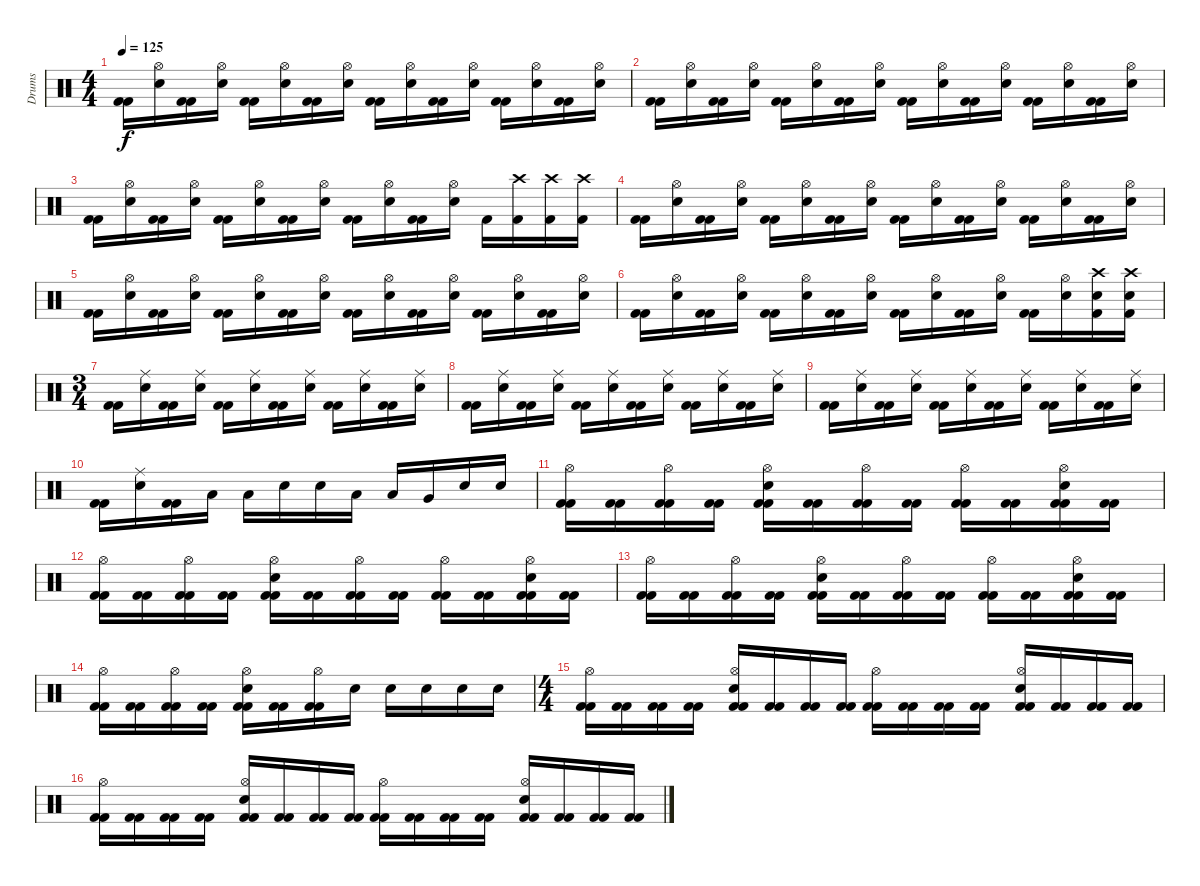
\track ("Drums" "Drums") {instrument percussion}
\staff {score}
\articulation defaults
\ts (4 4)
\tempo 125
\clef neutral
\ks c
("Kick (hit) 2" "Kick (hit) 2").16{dy f} ("Hi-Hat (open)" "Snare (hit) 2").16 ("Kick (hit) 2" "Kick (hit) 2").16 ("Hi-Hat (open)" "Snare (hit) 2").16 ("Kick (hit) 2" "Kick (hit) 2").16 ("Hi-Hat (open)" "Snare (hit) 2").16 ("Kick (hit) 2" "Kick (hit) 2").16 ("Hi-Hat (open)" "Snare (hit) 2").16 ("Kick (hit) 2" "Kick (hit) 2").16 ("Hi-Hat (open)" "Snare (hit) 2").16 ("Kick (hit) 2" "Kick (hit) 2").16 ("Hi-Hat (open)" "Snare (hit) 2").16 ("Kick (hit) 2" "Kick (hit) 2").16 ("Hi-Hat (open)" "Snare (hit) 2").16 ("Kick (hit) 2" "Kick (hit) 2").16 ("Hi-Hat (open)" "Snare (hit) 2").16 |
("Kick (hit) 2" "Kick (hit) 2").16 ("Hi-Hat (open)" "Snare (hit) 2").16 ("Kick (hit) 2" "Kick (hit) 2").16 ("Hi-Hat (open)" "Snare (hit) 2").16 ("Kick (hit) 2" "Kick (hit) 2").16 ("Hi-Hat (open)" "Snare (hit) 2").16 ("Kick (hit) 2" "Kick (hit) 2").16 ("Hi-Hat (open)" "Snare (hit) 2").16 ("Kick (hit) 2" "Kick (hit) 2").16 ("Hi-Hat (open)" "Snare (hit) 2").16 ("Kick (hit) 2" "Kick (hit) 2").16 ("Hi-Hat (open)" "Snare (hit) 2").16 ("Kick (hit) 2" "Kick (hit) 2").16 ("Hi-Hat (open)" "Snare (hit) 2").16 ("Kick (hit) 2" "Kick (hit) 2").16 ("Hi-Hat (open)" "Snare (hit) 2").16 |
("Kick (hit) 2" "Kick (hit) 2").16 ("Hi-Hat (open)" "Snare (hit) 2").16 ("Kick (hit) 2" "Kick (hit) 2").16 ("Hi-Hat (open)" "Snare (hit) 2").16 ("Kick (hit) 2" "Kick (hit) 2").16 ("Hi-Hat (open)" "Snare (hit) 2").16 ("Kick (hit) 2" "Kick (hit) 2").16 ("Hi-Hat (open)" "Snare (hit) 2").16 ("Kick (hit) 2" "Kick (hit) 2").16 ("Hi-Hat (open)" "Snare (hit) 2").16 ("Kick (hit) 2" "Kick (hit) 2").16 ("Hi-Hat (open)" "Snare (hit) 2").16 "Kick (hit) 2".16 ("Crash high (hit)" "Kick (hit) 2").16 ("Crash high (hit)" "Kick (hit) 2").16 ("Crash high (hit)" "Kick (hit) 2").16 |
("Kick (hit) 2" "Kick (hit) 2").16 ("Hi-Hat (open)" "Snare (hit) 2").16 ("Kick (hit) 2" "Kick (hit) 2").16 ("Hi-Hat (open)" "Snare (hit) 2").16 ("Kick (hit) 2" "Kick (hit) 2").16 ("Hi-Hat (open)" "Snare (hit) 2").16 ("Kick (hit) 2" "Kick (hit) 2").16 ("Hi-Hat (open)" "Snare (hit) 2").16 ("Kick (hit) 2" "Kick (hit) 2").16 ("Hi-Hat (open)" "Snare (hit) 2").16 ("Kick (hit) 2" "Kick (hit) 2").16 ("Hi-Hat (open)" "Snare (hit) 2").16 ("Kick (hit) 2" "Kick (hit) 2").16 ("Hi-Hat (open)" "Snare (hit) 2").16 ("Kick (hit) 2" "Kick (hit) 2").16 ("Hi-Hat (open)" "Snare (hit) 2").16 |
("Kick (hit) 2" "Kick (hit) 2").16 ("Hi-Hat (open)" "Snare (hit) 2").16 ("Kick (hit) 2" "Kick (hit) 2").16 ("Hi-Hat (open)" "Snare (hit) 2").16 ("Kick (hit) 2" "Kick (hit) 2").16 ("Hi-Hat (open)" "Snare (hit) 2").16 ("Kick (hit) 2" "Kick (hit) 2").16 ("Hi-Hat (open)" "Snare (hit) 2").16 ("Kick (hit) 2" "Kick (hit) 2").16 ("Hi-Hat (open)" "Snare (hit) 2").16 ("Kick (hit) 2" "Kick (hit) 2").16 ("Hi-Hat (open)" "Snare (hit) 2").16 ("Kick (hit) 2" "Kick (hit) 2").16 ("Hi-Hat (open)" "Snare (hit) 2").16 ("Kick (hit) 2" "Kick (hit) 2").16 ("Hi-Hat (open)" "Snare (hit) 2").16 |
("Kick (hit) 2" "Kick (hit) 2").16 ("Hi-Hat (open)" "Snare (hit) 2").16 ("Kick (hit) 2" "Kick (hit) 2").16 ("Hi-Hat (open)" "Snare (hit) 2").16 ("Kick (hit) 2" "Kick (hit) 2").16 ("Hi-Hat (open)" "Snare (hit) 2").16 ("Kick (hit) 2" "Kick (hit) 2").16 ("Hi-Hat (open)" "Snare (hit) 2").16 ("Kick (hit) 2" "Kick (hit) 2").16 ("Hi-Hat (open)" "Snare (hit) 2").16 ("Kick (hit) 2" "Kick (hit) 2").16 ("Hi-Hat (open)" "Snare (hit) 2").16 ("Kick (hit) 2" "Kick (hit) 2").16 ("Hi-Hat (open)" "Snare (hit) 2").16 ("Crash high (hit)" "Snare (hit) 2" "Kick (hit) 2").16 ("Crash high (hit)" "Snare (hit) 2" "Kick (hit) 2").16 |
\ts (3 4)
("Kick (hit) 2" "Kick (hit) 2").16 ("Ride (middle)" "Snare (hit) 2").16 ("Kick (hit) 2" "Kick (hit) 2").16 ("Ride (middle)" "Snare (hit) 2").16 ("Kick (hit) 2" "Kick (hit) 2").16 ("Ride (middle)" "Snare (hit) 2").16 ("Kick (hit) 2" "Kick (hit) 2").16 ("Ride (middle)" "Snare (hit) 2").16 ("Kick (hit) 2" "Kick (hit) 2").16 ("Ride (middle)" "Snare (hit) 2").16 ("Kick (hit) 2" "Kick (hit) 2").16 ("Ride (middle)" "Snare (hit) 2").16 |
("Kick (hit) 2" "Kick (hit) 2").16 ("Ride (middle)" "Snare (hit) 2").16 ("Kick (hit) 2" "Kick (hit) 2").16 ("Ride (middle)" "Snare (hit) 2").16 ("Kick (hit) 2" "Kick (hit) 2").16 ("Ride (middle)" "Snare (hit) 2").16 ("Kick (hit) 2" "Kick (hit) 2").16 ("Ride (middle)" "Snare (hit) 2").16 ("Kick (hit) 2" "Kick (hit) 2").16 ("Ride (middle)" "Snare (hit) 2").16 ("Kick (hit) 2" "Kick (hit) 2").16 ("Ride (middle)" "Snare (hit) 2").16 |
("Kick (hit) 2" "Kick (hit) 2").16 ("Ride (middle)" "Snare (hit) 2").16 ("Kick (hit) 2" "Kick (hit) 2").16 ("Ride (middle)" "Snare (hit) 2").16 ("Kick (hit) 2" "Kick (hit) 2").16 ("Ride (middle)" "Snare (hit) 2").16 ("Kick (hit) 2" "Kick (hit) 2").16 ("Ride (middle)" "Snare (hit) 2").16 ("Kick (hit) 2" "Kick (hit) 2").16 ("Ride (middle)" "Snare (hit) 2").16 ("Kick (hit) 2" "Kick (hit) 2").16 ("Ride (middle)" "Snare (hit) 2").16 |
("Kick (hit) 2" "Kick (hit) 2").16 ("Ride (middle)" "Snare (hit) 2").16 ("Kick (hit) 2" "Kick (hit) 2").16 "Low Tom (hit)".16 "Low Tom (hit)".16 "Snare (hit) 2".16 "Snare (hit) 2".16 "Low Tom (hit)".16 "Low Tom (hit)".16 "Very Low Tom (hit)".16 "Snare (hit) 2".16 "Snare (hit) 2".16 |
("Hi-Hat (open)" "Kick (hit) 2" "Kick (hit) 2").16 ("Kick (hit) 2" "Kick (hit) 2").16 ("Hi-Hat (open)" "Kick (hit) 2" "Kick (hit) 2").16 ("Kick (hit) 2" "Kick (hit) 2").16 ("Hi-Hat (open)" "Snare (hit) 2" "Kick (hit) 2" "Kick (hit) 2").16 ("Kick (hit) 2" "Kick (hit) 2").16 ("Hi-Hat (open)" "Kick (hit) 2" "Kick (hit) 2").16 ("Kick (hit) 2" "Kick (hit) 2").16 ("Hi-Hat (open)" "Kick (hit) 2" "Kick (hit) 2").16 ("Kick (hit) 2" "Kick (hit) 2").16 ("Hi-Hat (open)" "Snare (hit) 2" "Kick (hit) 2" "Kick (hit) 2").16 ("Kick (hit) 2" "Kick (hit) 2").16 |
("Hi-Hat (open)" "Kick (hit) 2" "Kick (hit) 2").16 ("Kick (hit) 2" "Kick (hit) 2").16 ("Hi-Hat (open)" "Kick (hit) 2" "Kick (hit) 2").16 ("Kick (hit) 2" "Kick (hit) 2").16 ("Hi-Hat (open)" "Snare (hit) 2" "Kick (hit) 2" "Kick (hit) 2").16 ("Kick (hit) 2" "Kick (hit) 2").16 ("Hi-Hat (open)" "Kick (hit) 2" "Kick (hit) 2").16 ("Kick (hit) 2" "Kick (hit) 2").16 ("Hi-Hat (open)" "Kick (hit) 2" "Kick (hit) 2").16 ("Kick (hit) 2" "Kick (hit) 2").16 ("Hi-Hat (open)" "Snare (hit) 2" "Kick (hit) 2" "Kick (hit) 2").16 ("Kick (hit) 2" "Kick (hit) 2").16 |
("Hi-Hat (open)" "Kick (hit) 2" "Kick (hit) 2").16 ("Kick (hit) 2" "Kick (hit) 2").16 ("Hi-Hat (open)" "Kick (hit) 2" "Kick (hit) 2").16 ("Kick (hit) 2" "Kick (hit) 2").16 ("Hi-Hat (open)" "Snare (hit) 2" "Kick (hit) 2" "Kick (hit) 2").16 ("Kick (hit) 2" "Kick (hit) 2").16 ("Hi-Hat (open)" "Kick (hit) 2" "Kick (hit) 2").16 ("Kick (hit) 2" "Kick (hit) 2").16 ("Hi-Hat (open)" "Kick (hit) 2" "Kick (hit) 2").16 ("Kick (hit) 2" "Kick (hit) 2").16 ("Hi-Hat (open)" "Snare (hit) 2" "Kick (hit) 2" "Kick (hit) 2").16 ("Kick (hit) 2" "Kick (hit) 2").16 |
("Hi-Hat (open)" "Kick (hit) 2" "Kick (hit) 2").16 ("Kick (hit) 2" "Kick (hit) 2").16 ("Hi-Hat (open)" "Kick (hit) 2" "Kick (hit) 2").16 ("Kick (hit) 2" "Kick (hit) 2").16 ("Hi-Hat (open)" "Snare (hit) 2" "Kick (hit) 2" "Kick (hit) 2").16 ("Kick (hit) 2" "Kick (hit) 2").16 ("Hi-Hat (open)" "Kick (hit) 2" "Kick (hit) 2").16 "Snare (hit) 2".16 "Snare (hit) 2".16 "Snare (hit) 2".16 "Snare (hit) 2".16 "Snare (hit) 2".16 |
\ts (4 4)
("Hi-Hat (open)" "Kick (hit) 2" "Kick (hit) 2").16 ("Kick (hit) 2" "Kick (hit) 2").16 ("Kick (hit) 2" "Kick (hit) 2").16 ("Kick (hit) 2" "Kick (hit) 2").16 ("Hi-Hat (open)" "Snare (hit) 2" "Kick (hit) 2" "Kick (hit) 2").16 ("Kick (hit) 2" "Kick (hit) 2").16 ("Kick (hit) 2" "Kick (hit) 2").16 ("Kick (hit) 2" "Kick (hit) 2").16 ("Hi-Hat (open)" "Kick (hit) 2" "Kick (hit) 2").16 ("Kick (hit) 2" "Kick (hit) 2").16 ("Kick (hit) 2" "Kick (hit) 2").16 ("Kick (hit) 2" "Kick (hit) 2").16 ("Hi-Hat (open)" "Snare (hit) 2" "Kick (hit) 2" "Kick (hit) 2").16 ("Kick (hit) 2" "Kick (hit) 2").16 ("Kick (hit) 2" "Kick (hit) 2").16 ("Kick (hit) 2" "Kick (hit) 2").16 |
("Hi-Hat (open)" "Kick (hit) 2" "Kick (hit) 2").16 ("Kick (hit) 2" "Kick (hit) 2").16 ("Kick (hit) 2" "Kick (hit) 2").16 ("Kick (hit) 2" "Kick (hit) 2").16 ("Hi-Hat (open)" "Snare (hit) 2" "Kick (hit) 2" "Kick (hit) 2").16 ("Kick (hit) 2" "Kick (hit) 2").16 ("Kick (hit) 2" "Kick (hit) 2").16 ("Kick (hit) 2" "Kick (hit) 2").16 ("Hi-Hat (open)" "Kick (hit) 2" "Kick (hit) 2").16 ("Kick (hit) 2" "Kick (hit) 2").16 ("Kick (hit) 2" "Kick (hit) 2").16 ("Kick (hit) 2" "Kick (hit) 2").16 ("Hi-Hat (open)" "Snare (hit) 2" "Kick (hit) 2" "Kick (hit) 2").16 ("Kick (hit) 2" "Kick (hit) 2").16 ("Kick (hit) 2" "Kick (hit) 2").16 ("Kick (hit) 2" "Kick (hit) 2").16
